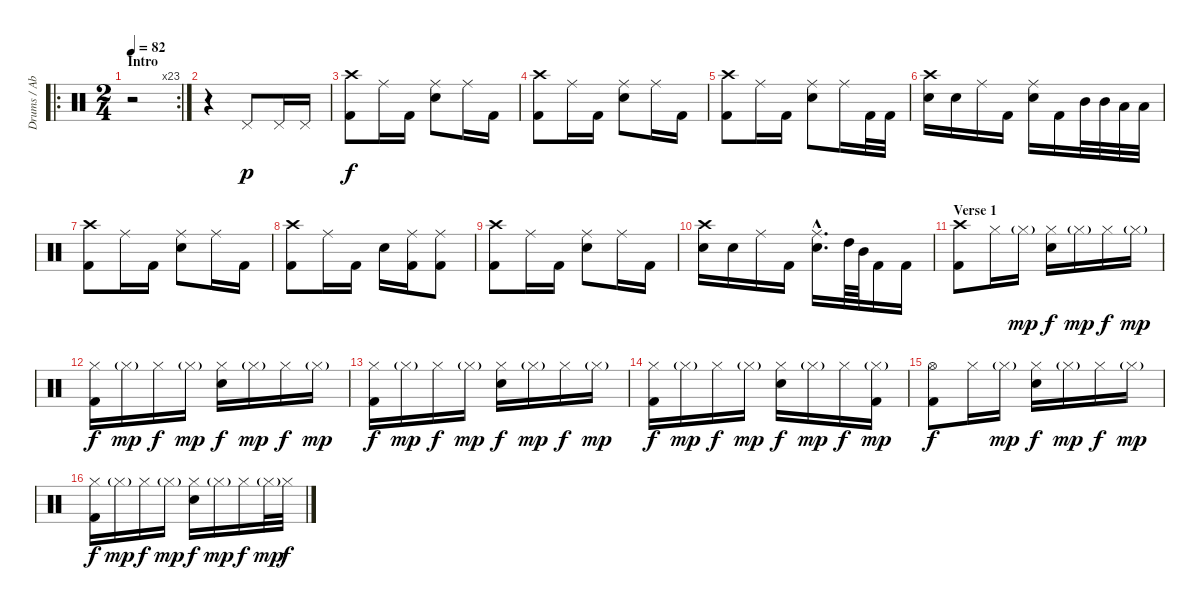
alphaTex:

\track ("Drums / Abe Cunningham" "Drums / Ab") {instrument percussion}
\staff {score}
\articulation defaults
\ro
\rc 23
\ts (2 4)
\section ("" "Intro")
\tempo 82
\clef neutral
\ks c
r.2{dy p} |
r.4 "Pedal Hi-Hat (hit)".8 "Pedal Hi-Hat (hit)".16 "Pedal Hi-Hat (hit)".16 |
("Crash high (hit)" "Kick (hit) 2").8{dy f} "Ride (middle)".16 "Kick (hit) 2".16 ("Ride (middle)" "Electric Snare (hit)").8 "Ride (middle)".16 "Kick (hit) 2".16 |
("Crash high (hit)" "Kick (hit) 2").8 "Ride (middle)".16 "Kick (hit) 2".16 ("Ride (middle)" "Electric Snare (hit)").8 "Ride (middle)".16 "Kick (hit) 2".16 |
("Crash high (hit)" "Kick (hit) 2").8 "Ride (middle)".16 "Kick (hit) 2".16 ("Ride (middle)" "Electric Snare (hit)").8 "Ride (middle)".16 "Kick (hit) 2".32 "Kick (hit) 2".32 |
("Crash high (hit)" "Electric Snare (hit)").16 "Electric Snare (hit)".16 "Ride (middle)".16 "Kick (hit) 2".16 ("Ride (middle)" "Electric Snare (hit)").16 "Kick (hit) 2".16 "Mid Tom (hit)".32 "Mid Tom (hit)".32 "Low Tom (hit)".32 "Low Tom (hit)".32 |
("Crash high (hit)" "Kick (hit) 2").8 "Ride (middle)".16 "Kick (hit) 2".16 ("Ride (middle)" "Electric Snare (hit)").8 "Ride (middle)".16 "Kick (hit) 2".16 |
("Crash high (hit)" "Kick (hit) 2").8 "Ride (middle)".16 "Kick (hit) 2".16 "Electric Snare (hit)".16 ("Ride (middle)" "Kick (hit) 2").16 ("Ride (middle)" "Kick (hit) 2").8 |
("Crash high (hit)" "Kick (hit) 2").8 "Ride (middle)".16 "Kick (hit) 2".16 ("Ride (middle)" "Electric Snare (hit)").8 "Ride (middle)".16 "Kick (hit) 2".16 |
("Crash high (hit)" "Electric Snare (hit)").16 "Electric Snare (hit)".16 "Ride (middle)".16 "Kick (hit) 2".16 ("Ride (middle)"{hac} "Electric Snare (hit)"{hac}).16{d} "High Tom (hit)".64 "Mid Tom (hit)".64 "Kick (hit) 2".16 "Kick (hit) 2".16 |
\section ("" "Verse 1")
("Crash high (hit)" "Kick (hit) 2").8 "Hi-Hat (closed)".16 "Hi-Hat (closed)"{g}.16{dy mp} ("Hi-Hat (closed)" "Electric Snare (hit)").16{dy f} "Hi-Hat (closed)"{g}.16{dy mp} "Hi-Hat (closed)".16{dy f} "Hi-Hat (closed)"{g}.16{dy mp} |
("Hi-Hat (closed)" "Kick (hit) 2").16{dy f} "Hi-Hat (closed)"{g}.16{dy mp} "Hi-Hat (closed)".16{dy f} "Hi-Hat (closed)"{g}.16{dy mp} ("Hi-Hat (closed)" "Electric Snare (hit)").16{dy f} "Hi-Hat (closed)"{g}.16{dy mp} "Hi-Hat (closed)".16{dy f} "Hi-Hat (closed)"{g}.16{dy mp} |
("Hi-Hat (closed)" "Kick (hit) 2").16{dy f} "Hi-Hat (closed)"{g}.16{dy mp} "Hi-Hat (closed)".16{dy f} "Hi-Hat (closed)"{g}.16{dy mp} ("Hi-Hat (closed)" "Electric Snare (hit)").16{dy f} "Hi-Hat (closed)"{g}.16{dy mp} "Hi-Hat (closed)".16{dy f} "Hi-Hat (closed)"{g}.16{dy mp} |
("Hi-Hat (closed)" "Kick (hit) 2").16{dy f} "Hi-Hat (closed)"{g}.16{dy mp} "Hi-Hat (closed)".16{dy f} "Hi-Hat (closed)"{g}.16{dy mp} ("Hi-Hat (closed)" "Electric Snare (hit)").16{dy f} "Hi-Hat (closed)"{g}.16{dy mp} "Hi-Hat (closed)".16{dy f} ("Hi-Hat (closed)"{g} "Kick (hit) 2").16{dy mp} |
("Hi-Hat (open)" "Kick (hit) 2").8{dy f} "Hi-Hat (closed)".16 "Hi-Hat (closed)"{g}.16{dy mp} ("Hi-Hat (closed)" "Electric Snare (hit)").16{dy f} "Hi-Hat (closed)"{g}.16{dy mp} "Hi-Hat (closed)".16{dy f} "Hi-Hat (closed)"{g}.16{dy mp} |
("Hi-Hat (closed)" "Kick (hit) 2").16{dy f} "Hi-Hat (closed)"{g}.16{dy mp} "Hi-Hat (closed)".16{dy f} "Hi-Hat (closed)"{g}.16{dy mp} ("Hi-Hat (closed)" "Electric Snare (hit)").16{dy f} "Hi-Hat (closed)"{g}.16{dy mp} "Hi-Hat (closed)".16{dy f} "Hi-Hat (closed)"{g}.32{dy mp} "Hi-Hat (closed)".32{dy f}
